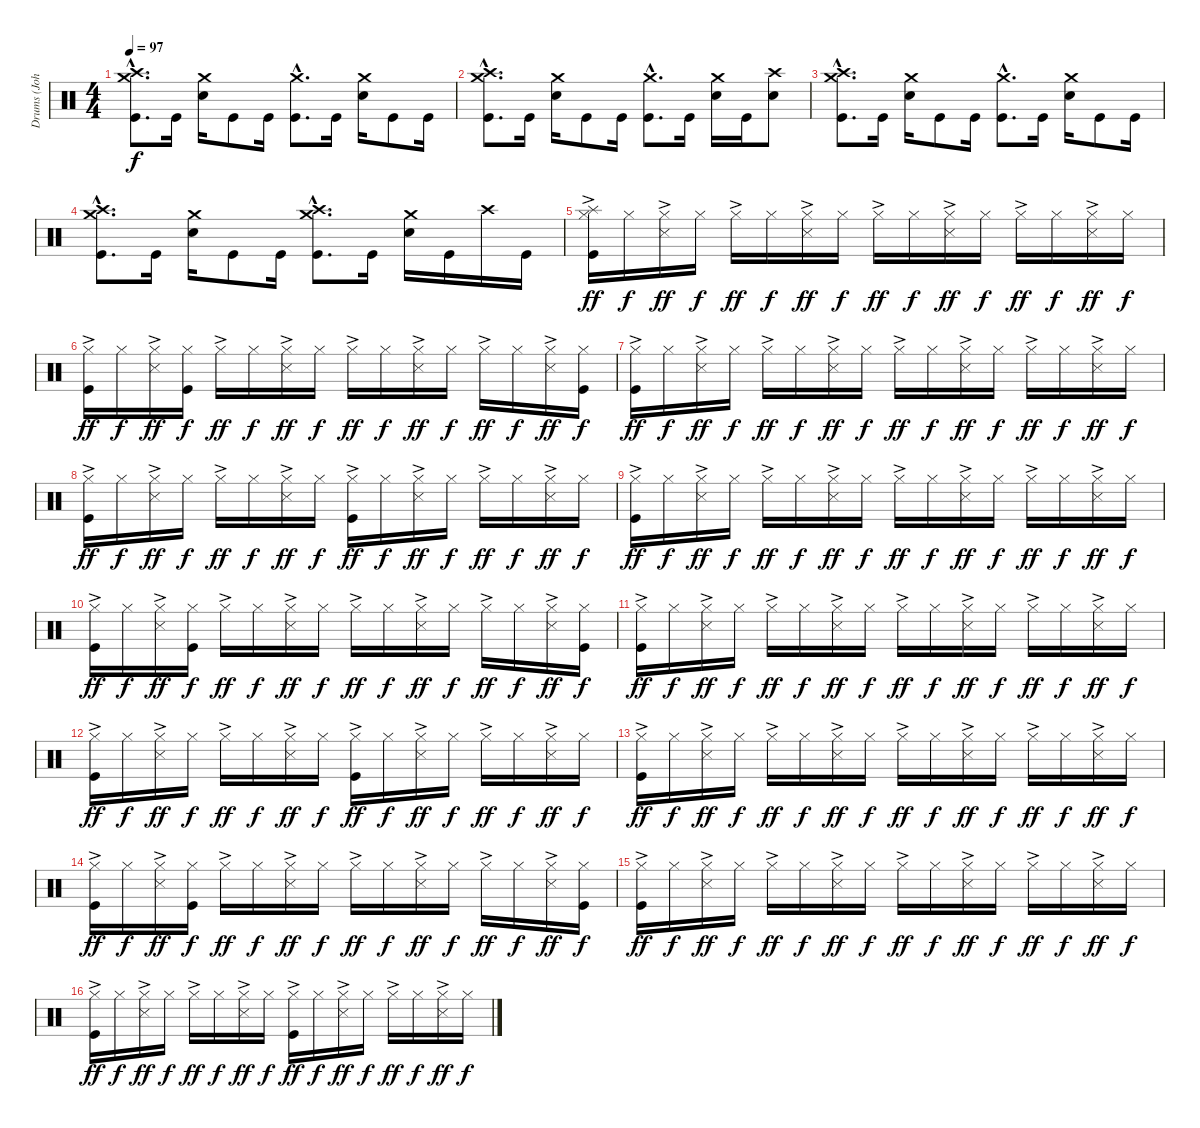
\track ("Drums (John Ensminger)" "Drums (Joh") {instrument percussion}
\staff {score}
\articulation defaults
\ts (4 4)
\tempo 97
\clef neutral
\ks c
("Crash medium (hit)"{hac} "Crash high (hit)"{hac} "Kick (hit)"{hac}).8{d dy f} "Kick (hit)".16 ("Crash medium (hit)" "Electric Snare (hit)").16 "Kick (hit)".8 "Kick (hit)".16 ("Crash medium (hit)"{hac} "Kick (hit)"{hac}).8{d} "Kick (hit)".16 ("Crash medium (hit)" "Electric Snare (hit)").16 "Kick (hit)".8 "Kick (hit)".16 |
("Crash medium (hit)"{hac} "Crash high (hit)"{hac} "Kick (hit)"{hac}).8{d} "Kick (hit)".16 ("Crash medium (hit)" "Electric Snare (hit)").16 "Kick (hit)".8 "Kick (hit)".16 ("Crash medium (hit)"{hac} "Kick (hit)"{hac}).8{d} "Kick (hit)".16 ("Crash medium (hit)" "Electric Snare (hit)").16 "Kick (hit)".16 ("Crash high (hit)" "Electric Snare (hit)").8 |
("Crash medium (hit)"{hac} "Crash high (hit)"{hac} "Kick (hit)"{hac}).8{d} "Kick (hit)".16 ("Crash medium (hit)" "Electric Snare (hit)").16 "Kick (hit)".8 "Kick (hit)".16 ("Crash medium (hit)"{hac} "Kick (hit)"{hac}).8{d} "Kick (hit)".16 ("Crash medium (hit)" "Electric Snare (hit)").16 "Kick (hit)".8 "Kick (hit)".16 |
("Crash medium (hit)"{hac} "Crash high (hit)"{hac} "Kick (hit)"{hac}).8{d} "Kick (hit)".16 ("Crash medium (hit)" "Electric Snare (hit)").16 "Kick (hit)".8 "Kick (hit)".16 ("Crash medium (hit)"{hac} "Crash high (hit)"{hac} "Kick (hit)"{hac}).8{d} "Kick (hit)".16 ("Crash medium (hit)" "Electric Snare (hit)").16 "Kick (hit)".16 "Crash high (hit)".16 "Kick (hit)".16 |
("Splash (hit)" "Hi-Hat (closed)"{ac} "Kick (hit)").16{dy ff} "Hi-Hat (closed)".16{dy f} ("Hi-Hat (closed)"{ac} "Snare (side stick) 3").16{dy ff} "Hi-Hat (closed)".16{dy f} "Hi-Hat (closed)"{ac}.16{dy ff} "Hi-Hat (closed)".16{dy f} ("Hi-Hat (closed)"{ac} "Snare (side stick) 3").16{dy ff} "Hi-Hat (closed)".16{dy f} "Hi-Hat (closed)"{ac}.16{dy ff} "Hi-Hat (closed)".16{dy f} ("Hi-Hat (closed)"{ac} "Snare (side stick) 3").16{dy ff} "Hi-Hat (closed)".16{dy f} "Hi-Hat (closed)"{ac}.16{dy ff} "Hi-Hat (closed)".16{dy f} ("Hi-Hat (closed)"{ac} "Snare (side stick) 3").16{dy ff} "Hi-Hat (closed)".16{dy f} |
("Hi-Hat (closed)"{ac} "Kick (hit)").16{dy ff} "Hi-Hat (closed)".16{dy f} ("Hi-Hat (closed)"{ac} "Snare (side stick) 3").16{dy ff} ("Hi-Hat (closed)" "Kick (hit)").16{dy f} "Hi-Hat (closed)"{ac}.16{dy ff} "Hi-Hat (closed)".16{dy f} ("Hi-Hat (closed)"{ac} "Snare (side stick) 3").16{dy ff} "Hi-Hat (closed)".16{dy f} "Hi-Hat (closed)"{ac}.16{dy ff} "Hi-Hat (closed)".16{dy f} ("Hi-Hat (closed)"{ac} "Snare (side stick) 3").16{dy ff} "Hi-Hat (closed)".16{dy f} "Hi-Hat (closed)"{ac}.16{dy ff} "Hi-Hat (closed)".16{dy f} ("Hi-Hat (closed)"{ac} "Snare (side stick) 3").16{dy ff} ("Hi-Hat (closed)" "Kick (hit)").16{dy f} |
("Hi-Hat (closed)"{ac} "Kick (hit)").16{dy ff} "Hi-Hat (closed)".16{dy f} ("Hi-Hat (closed)"{ac} "Snare (side stick) 3").16{dy ff} "Hi-Hat (closed)".16{dy f} "Hi-Hat (closed)"{ac}.16{dy ff} "Hi-Hat (closed)".16{dy f} ("Hi-Hat (closed)"{ac} "Snare (side stick) 3").16{dy ff} "Hi-Hat (closed)".16{dy f} "Hi-Hat (closed)"{ac}.16{dy ff} "Hi-Hat (closed)".16{dy f} ("Hi-Hat (closed)"{ac} "Snare (side stick) 3").16{dy ff} "Hi-Hat (closed)".16{dy f} "Hi-Hat (closed)"{ac}.16{dy ff} "Hi-Hat (closed)".16{dy f} ("Hi-Hat (closed)"{ac} "Snare (side stick) 3").16{dy ff} "Hi-Hat (closed)".16{dy f} |
("Hi-Hat (closed)"{ac} "Kick (hit)").16{dy ff} "Hi-Hat (closed)".16{dy f} ("Hi-Hat (closed)"{ac} "Snare (side stick) 3").16{dy ff} "Hi-Hat (closed)".16{dy f} "Hi-Hat (closed)"{ac}.16{dy ff} "Hi-Hat (closed)".16{dy f} ("Hi-Hat (closed)"{ac} "Snare (side stick) 3").16{dy ff} "Hi-Hat (closed)".16{dy f} ("Hi-Hat (closed)"{ac} "Kick (hit)").16{dy ff} "Hi-Hat (closed)".16{dy f} ("Hi-Hat (closed)"{ac} "Snare (side stick) 3").16{dy ff} "Hi-Hat (closed)".16{dy f} "Hi-Hat (closed)"{ac}.16{dy ff} "Hi-Hat (closed)".16{dy f} ("Hi-Hat (closed)"{ac} "Snare (side stick) 3").16{dy ff} "Hi-Hat (closed)".16{dy f} |
("Hi-Hat (closed)"{ac} "Kick (hit)").16{dy ff} "Hi-Hat (closed)".16{dy f} ("Hi-Hat (closed)"{ac} "Snare (side stick) 3").16{dy ff} "Hi-Hat (closed)".16{dy f} "Hi-Hat (closed)"{ac}.16{dy ff} "Hi-Hat (closed)".16{dy f} ("Hi-Hat (closed)"{ac} "Snare (side stick) 3").16{dy ff} "Hi-Hat (closed)".16{dy f} "Hi-Hat (closed)"{ac}.16{dy ff} "Hi-Hat (closed)".16{dy f} ("Hi-Hat (closed)"{ac} "Snare (side stick) 3").16{dy ff} "Hi-Hat (closed)".16{dy f} "Hi-Hat (closed)"{ac}.16{dy ff} "Hi-Hat (closed)".16{dy f} ("Hi-Hat (closed)"{ac} "Snare (side stick) 3").16{dy ff} "Hi-Hat (closed)".16{dy f} |
("Hi-Hat (closed)"{ac} "Kick (hit)").16{dy ff} "Hi-Hat (closed)".16{dy f} ("Hi-Hat (closed)"{ac} "Snare (side stick) 3").16{dy ff} ("Hi-Hat (closed)" "Kick (hit)").16{dy f} "Hi-Hat (closed)"{ac}.16{dy ff} "Hi-Hat (closed)".16{dy f} ("Hi-Hat (closed)"{ac} "Snare (side stick) 3").16{dy ff} "Hi-Hat (closed)".16{dy f} "Hi-Hat (closed)"{ac}.16{dy ff} "Hi-Hat (closed)".16{dy f} ("Hi-Hat (closed)"{ac} "Snare (side stick) 3").16{dy ff} "Hi-Hat (closed)".16{dy f} "Hi-Hat (closed)"{ac}.16{dy ff} "Hi-Hat (closed)".16{dy f} ("Hi-Hat (closed)"{ac} "Snare (side stick) 3").16{dy ff} ("Hi-Hat (closed)" "Kick (hit)").16{dy f} |
("Hi-Hat (closed)"{ac} "Kick (hit)").16{dy ff} "Hi-Hat (closed)".16{dy f} ("Hi-Hat (closed)"{ac} "Snare (side stick) 3").16{dy ff} "Hi-Hat (closed)".16{dy f} "Hi-Hat (closed)"{ac}.16{dy ff} "Hi-Hat (closed)".16{dy f} ("Hi-Hat (closed)"{ac} "Snare (side stick) 3").16{dy ff} "Hi-Hat (closed)".16{dy f} "Hi-Hat (closed)"{ac}.16{dy ff} "Hi-Hat (closed)".16{dy f} ("Hi-Hat (closed)"{ac} "Snare (side stick) 3").16{dy ff} "Hi-Hat (closed)".16{dy f} "Hi-Hat (closed)"{ac}.16{dy ff} "Hi-Hat (closed)".16{dy f} ("Hi-Hat (closed)"{ac} "Snare (side stick) 3").16{dy ff} "Hi-Hat (closed)".16{dy f} |
("Hi-Hat (closed)"{ac} "Kick (hit)").16{dy ff} "Hi-Hat (closed)".16{dy f} ("Hi-Hat (closed)"{ac} "Snare (side stick) 3").16{dy ff} "Hi-Hat (closed)".16{dy f} "Hi-Hat (closed)"{ac}.16{dy ff} "Hi-Hat (closed)".16{dy f} ("Hi-Hat (closed)"{ac} "Snare (side stick) 3").16{dy ff} "Hi-Hat (closed)".16{dy f} ("Hi-Hat (closed)"{ac} "Kick (hit)").16{dy ff} "Hi-Hat (closed)".16{dy f} ("Hi-Hat (closed)"{ac} "Snare (side stick) 3").16{dy ff} "Hi-Hat (closed)".16{dy f} "Hi-Hat (closed)"{ac}.16{dy ff} "Hi-Hat (closed)".16{dy f} ("Hi-Hat (closed)"{ac} "Snare (side stick) 3").16{dy ff} "Hi-Hat (closed)".16{dy f} |
("Hi-Hat (closed)"{ac} "Kick (hit)").16{dy ff} "Hi-Hat (closed)".16{dy f} ("Hi-Hat (closed)"{ac} "Snare (side stick) 3").16{dy ff} "Hi-Hat (closed)".16{dy f} "Hi-Hat (closed)"{ac}.16{dy ff} "Hi-Hat (closed)".16{dy f} ("Hi-Hat (closed)"{ac} "Snare (side stick) 3").16{dy ff} "Hi-Hat (closed)".16{dy f} "Hi-Hat (closed)"{ac}.16{dy ff} "Hi-Hat (closed)".16{dy f} ("Hi-Hat (closed)"{ac} "Snare (side stick) 3").16{dy ff} "Hi-Hat (closed)".16{dy f} "Hi-Hat (closed)"{ac}.16{dy ff} "Hi-Hat (closed)".16{dy f} ("Hi-Hat (closed)"{ac} "Snare (side stick) 3").16{dy ff} "Hi-Hat (closed)".16{dy f} |
("Hi-Hat (closed)"{ac} "Kick (hit)").16{dy ff} "Hi-Hat (closed)".16{dy f} ("Hi-Hat (closed)"{ac} "Snare (side stick) 3").16{dy ff} ("Hi-Hat (closed)" "Kick (hit)").16{dy f} "Hi-Hat (closed)"{ac}.16{dy ff} "Hi-Hat (closed)".16{dy f} ("Hi-Hat (closed)"{ac} "Snare (side stick) 3").16{dy ff} "Hi-Hat (closed)".16{dy f} "Hi-Hat (closed)"{ac}.16{dy ff} "Hi-Hat (closed)".16{dy f} ("Hi-Hat (closed)"{ac} "Snare (side stick) 3").16{dy ff} "Hi-Hat (closed)".16{dy f} "Hi-Hat (closed)"{ac}.16{dy ff} "Hi-Hat (closed)".16{dy f} ("Hi-Hat (closed)"{ac} "Snare (side stick) 3").16{dy ff} ("Hi-Hat (closed)" "Kick (hit)").16{dy f} |
("Hi-Hat (closed)"{ac} "Kick (hit)").16{dy ff} "Hi-Hat (closed)".16{dy f} ("Hi-Hat (closed)"{ac} "Snare (side stick) 3").16{dy ff} "Hi-Hat (closed)".16{dy f} "Hi-Hat (closed)"{ac}.16{dy ff} "Hi-Hat (closed)".16{dy f} ("Hi-Hat (closed)"{ac} "Snare (side stick) 3").16{dy ff} "Hi-Hat (closed)".16{dy f} "Hi-Hat (closed)"{ac}.16{dy ff} "Hi-Hat (closed)".16{dy f} ("Hi-Hat (closed)"{ac} "Snare (side stick) 3").16{dy ff} "Hi-Hat (closed)".16{dy f} "Hi-Hat (closed)"{ac}.16{dy ff} "Hi-Hat (closed)".16{dy f} ("Hi-Hat (closed)"{ac} "Snare (side stick) 3").16{dy ff} "Hi-Hat (closed)".16{dy f} |
("Hi-Hat (closed)"{ac} "Kick (hit)").16{dy ff} "Hi-Hat (closed)".16{dy f} ("Hi-Hat (closed)"{ac} "Snare (side stick) 3").16{dy ff} "Hi-Hat (closed)".16{dy f} "Hi-Hat (closed)"{ac}.16{dy ff} "Hi-Hat (closed)".16{dy f} ("Hi-Hat (closed)"{ac} "Snare (side stick) 3").16{dy ff} "Hi-Hat (closed)".16{dy f} ("Hi-Hat (closed)"{ac} "Kick (hit)").16{dy ff} "Hi-Hat (closed)".16{dy f} ("Hi-Hat (closed)"{ac} "Snare (side stick) 3").16{dy ff} "Hi-Hat (closed)".16{dy f} "Hi-Hat (closed)"{ac}.16{dy ff} "Hi-Hat (closed)".16{dy f} ("Hi-Hat (closed)"{ac} "Snare (side stick) 3").16{dy ff} "Hi-Hat (closed)".16{dy f}
